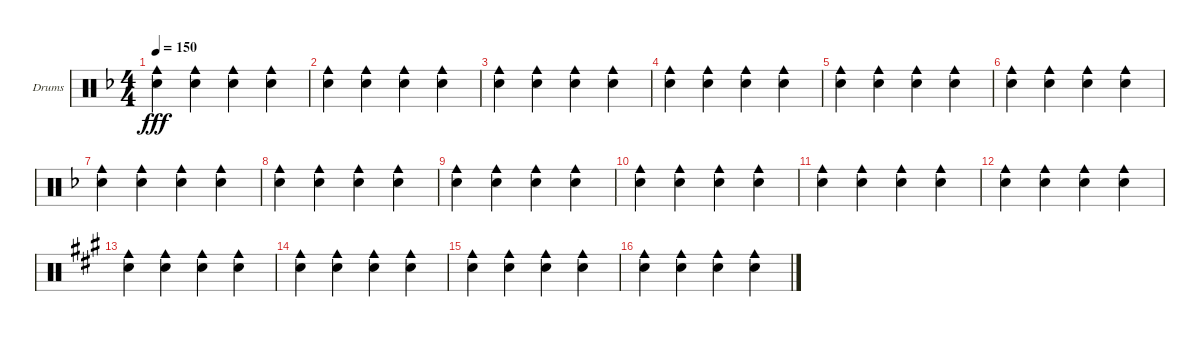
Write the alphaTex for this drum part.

\defaultSystemsLayout 4
\bracketExtendMode groupsimilarinstruments
\firstSystemTrackNameOrientation horizontal
\otherSystemsTrackNameOrientation horizontal
\track ("Drumkit" "Drums") {instrument percussion}
\staff {score}
\articulation defaults
\ts (4 4)
\tempo 150
\clef neutral
\scale
0.5
\ks f
("Cowbell medium (hit)" "Snare (hit) 2").4{dy fff} ("Cowbell medium (hit)" "Snare (hit) 2").4 ("Cowbell medium (hit)" "Snare (hit) 2").4 ("Cowbell medium (hit)" "Snare (hit) 2").4 |
\scale
0.25 ("Cowbell medium (hit)" "Snare (hit) 2").4 ("Cowbell medium (hit)" "Snare (hit) 2").4 ("Cowbell medium (hit)" "Snare (hit) 2").4 ("Cowbell medium (hit)" "Snare (hit) 2").4 |
\scale
0.25 ("Cowbell medium (hit)" "Snare (hit) 2").4 ("Cowbell medium (hit)" "Snare (hit) 2").4 ("Cowbell medium (hit)" "Snare (hit) 2").4 ("Cowbell medium (hit)" "Snare (hit) 2").4 |
\scale
0.333333 ("Cowbell medium (hit)" "Snare (hit) 2").4 ("Cowbell medium (hit)" "Snare (hit) 2").4 ("Cowbell medium (hit)" "Snare (hit) 2").4 ("Cowbell medium (hit)" "Snare (hit) 2").4 |
\scale
0.333333 ("Cowbell medium (hit)" "Snare (hit) 2").4 ("Cowbell medium (hit)" "Snare (hit) 2").4 ("Cowbell medium (hit)" "Snare (hit) 2").4 ("Cowbell medium (hit)" "Snare (hit) 2").4 |
\scale
0.333333 ("Cowbell medium (hit)" "Snare (hit) 2").4 ("Cowbell medium (hit)" "Snare (hit) 2").4 ("Cowbell medium (hit)" "Snare (hit) 2").4 ("Cowbell medium (hit)" "Snare (hit) 2").4 |
\scale
0.333333 ("Cowbell medium (hit)" "Snare (hit) 2").4 ("Cowbell medium (hit)" "Snare (hit) 2").4 ("Cowbell medium (hit)" "Snare (hit) 2").4 ("Cowbell medium (hit)" "Snare (hit) 2").4 |
\scale
0.333333 ("Cowbell medium (hit)" "Snare (hit) 2").4 ("Cowbell medium (hit)" "Snare (hit) 2").4 ("Cowbell medium (hit)" "Snare (hit) 2").4 ("Cowbell medium (hit)" "Snare (hit) 2").4 |
\scale
0.333333 ("Cowbell medium (hit)" "Snare (hit) 2").4 ("Cowbell medium (hit)" "Snare (hit) 2").4 ("Cowbell medium (hit)" "Snare (hit) 2").4 ("Cowbell medium (hit)" "Snare (hit) 2").4 |
\scale
0.333333 ("Cowbell medium (hit)" "Snare (hit) 2").4 ("Cowbell medium (hit)" "Snare (hit) 2").4 ("Cowbell medium (hit)" "Snare (hit) 2").4 ("Cowbell medium (hit)" "Snare (hit) 2").4 |
\scale
0.333333 ("Cowbell medium (hit)" "Snare (hit) 2").4 ("Cowbell medium (hit)" "Snare (hit) 2").4 ("Cowbell medium (hit)" "Snare (hit) 2").4 ("Cowbell medium (hit)" "Snare (hit) 2").4 |
\scale
0.333333 ("Cowbell medium (hit)" "Snare (hit) 2").4 ("Cowbell medium (hit)" "Snare (hit) 2").4 ("Cowbell medium (hit)" "Snare (hit) 2").4 ("Cowbell medium (hit)" "Snare (hit) 2").4 |
\scale
0.497797
\ks a
("Cowbell medium (hit)" "Snare (hit) 2").4 ("Cowbell medium (hit)" "Snare (hit) 2").4 ("Cowbell medium (hit)" "Snare (hit) 2").4 ("Cowbell medium (hit)" "Snare (hit) 2").4 |
\scale
0.251101 ("Cowbell medium (hit)" "Snare (hit) 2").4 ("Cowbell medium (hit)" "Snare (hit) 2").4 ("Cowbell medium (hit)" "Snare (hit) 2").4 ("Cowbell medium (hit)" "Snare (hit) 2").4 |
\scale
0.251101 ("Cowbell medium (hit)" "Snare (hit) 2").4 ("Cowbell medium (hit)" "Snare (hit) 2").4 ("Cowbell medium (hit)" "Snare (hit) 2").4 ("Cowbell medium (hit)" "Snare (hit) 2").4 |
\scale
0.333333 ("Cowbell medium (hit)" "Snare (hit) 2").4 ("Cowbell medium (hit)" "Snare (hit) 2").4 ("Cowbell medium (hit)" "Snare (hit) 2").4 ("Cowbell medium (hit)" "Snare (hit) 2").4
